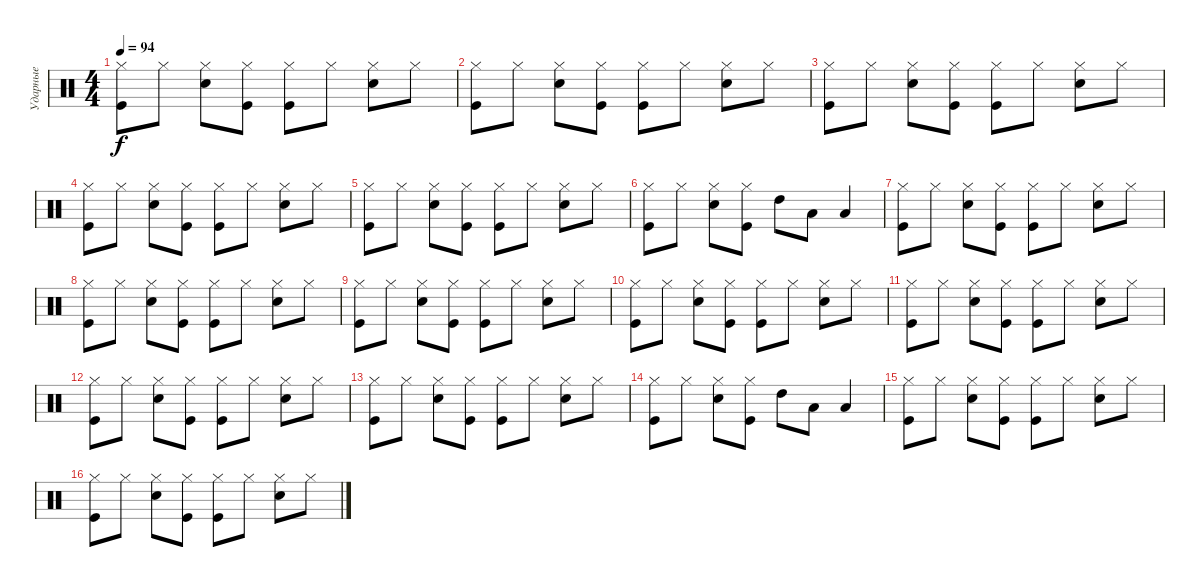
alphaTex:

\track ("Ударные" "Ударные") {instrument percussion}
\staff {score}
\articulation defaults
\ts (4 4)
\tempo 94
\clef neutral
\ks c
("Hi-Hat (closed)" "Kick (hit)").8{dy f} "Hi-Hat (closed)".8 ("Hi-Hat (closed)" "Snare (hit) 2").8 ("Kick (hit)" "Hi-Hat (closed)").8 ("Hi-Hat (closed)" "Kick (hit)").8 "Hi-Hat (closed)".8 ("Hi-Hat (closed)" "Snare (hit) 2").8 "Hi-Hat (closed)".8 |
("Hi-Hat (closed)" "Kick (hit)").8 "Hi-Hat (closed)".8 ("Hi-Hat (closed)" "Snare (hit) 2").8 ("Kick (hit)" "Hi-Hat (closed)").8 ("Hi-Hat (closed)" "Kick (hit)").8 "Hi-Hat (closed)".8 ("Hi-Hat (closed)" "Snare (hit) 2").8 "Hi-Hat (closed)".8 |
("Hi-Hat (closed)" "Kick (hit)").8 "Hi-Hat (closed)".8 ("Hi-Hat (closed)" "Snare (hit) 2").8 ("Kick (hit)" "Hi-Hat (closed)").8 ("Hi-Hat (closed)" "Kick (hit)").8 "Hi-Hat (closed)".8 ("Hi-Hat (closed)" "Snare (hit) 2").8 "Hi-Hat (closed)".8 |
("Hi-Hat (closed)" "Kick (hit)").8 "Hi-Hat (closed)".8 ("Hi-Hat (closed)" "Snare (hit) 2").8 ("Kick (hit)" "Hi-Hat (closed)").8 ("Hi-Hat (closed)" "Kick (hit)").8 "Hi-Hat (closed)".8 ("Hi-Hat (closed)" "Snare (hit) 2").8 "Hi-Hat (closed)".8 |
("Hi-Hat (closed)" "Kick (hit)").8 "Hi-Hat (closed)".8 ("Hi-Hat (closed)" "Snare (hit) 2").8 ("Kick (hit)" "Hi-Hat (closed)").8 ("Hi-Hat (closed)" "Kick (hit)").8 "Hi-Hat (closed)".8 ("Hi-Hat (closed)" "Snare (hit) 2").8 "Hi-Hat (closed)".8 |
("Hi-Hat (closed)" "Kick (hit)").8 "Hi-Hat (closed)".8 ("Hi-Hat (closed)" "Snare (hit) 2").8 ("Kick (hit)" "Hi-Hat (closed)").8 "High Tom (hit)".8 "Low Tom (hit)".8 "Low Floor Tom (hit)".4 |
("Hi-Hat (closed)" "Kick (hit)").8 "Hi-Hat (closed)".8 ("Hi-Hat (closed)" "Snare (hit) 2").8 ("Kick (hit)" "Hi-Hat (closed)").8 ("Hi-Hat (closed)" "Kick (hit)").8 "Hi-Hat (closed)".8 ("Hi-Hat (closed)" "Snare (hit) 2").8 "Hi-Hat (closed)".8 |
("Hi-Hat (closed)" "Kick (hit)").8 "Hi-Hat (closed)".8 ("Hi-Hat (closed)" "Snare (hit) 2").8 ("Kick (hit)" "Hi-Hat (closed)").8 ("Hi-Hat (closed)" "Kick (hit)").8 "Hi-Hat (closed)".8 ("Hi-Hat (closed)" "Snare (hit) 2").8 "Hi-Hat (closed)".8 |
("Hi-Hat (closed)" "Kick (hit)").8 "Hi-Hat (closed)".8 ("Hi-Hat (closed)" "Snare (hit) 2").8 ("Kick (hit)" "Hi-Hat (closed)").8 ("Hi-Hat (closed)" "Kick (hit)").8 "Hi-Hat (closed)".8 ("Hi-Hat (closed)" "Snare (hit) 2").8 "Hi-Hat (closed)".8 |
("Hi-Hat (closed)" "Kick (hit)").8 "Hi-Hat (closed)".8 ("Hi-Hat (closed)" "Snare (hit) 2").8 ("Kick (hit)" "Hi-Hat (closed)").8 ("Hi-Hat (closed)" "Kick (hit)").8 "Hi-Hat (closed)".8 ("Hi-Hat (closed)" "Snare (hit) 2").8 "Hi-Hat (closed)".8 |
("Hi-Hat (closed)" "Kick (hit)").8 "Hi-Hat (closed)".8 ("Hi-Hat (closed)" "Snare (hit) 2").8 ("Kick (hit)" "Hi-Hat (closed)").8 ("Hi-Hat (closed)" "Kick (hit)").8 "Hi-Hat (closed)".8 ("Hi-Hat (closed)" "Snare (hit) 2").8 "Hi-Hat (closed)".8 |
("Hi-Hat (closed)" "Kick (hit)").8 "Hi-Hat (closed)".8 ("Hi-Hat (closed)" "Snare (hit) 2").8 ("Kick (hit)" "Hi-Hat (closed)").8 ("Hi-Hat (closed)" "Kick (hit)").8 "Hi-Hat (closed)".8 ("Hi-Hat (closed)" "Snare (hit) 2").8 "Hi-Hat (closed)".8 |
("Hi-Hat (closed)" "Kick (hit)").8 "Hi-Hat (closed)".8 ("Hi-Hat (closed)" "Snare (hit) 2").8 ("Kick (hit)" "Hi-Hat (closed)").8 ("Hi-Hat (closed)" "Kick (hit)").8 "Hi-Hat (closed)".8 ("Hi-Hat (closed)" "Snare (hit) 2").8 "Hi-Hat (closed)".8 |
("Hi-Hat (closed)" "Kick (hit)").8 "Hi-Hat (closed)".8 ("Hi-Hat (closed)" "Snare (hit) 2").8 ("Kick (hit)" "Hi-Hat (closed)").8 "High Tom (hit)".8 "Low Tom (hit)".8 "Low Floor Tom (hit)".4 |
("Hi-Hat (closed)" "Kick (hit)").8 "Hi-Hat (closed)".8 ("Hi-Hat (closed)" "Snare (hit) 2").8 ("Kick (hit)" "Hi-Hat (closed)").8 ("Hi-Hat (closed)" "Kick (hit)").8 "Hi-Hat (closed)".8 ("Hi-Hat (closed)" "Snare (hit) 2").8 "Hi-Hat (closed)".8 |
("Hi-Hat (closed)" "Kick (hit)").8 "Hi-Hat (closed)".8 ("Hi-Hat (closed)" "Snare (hit) 2").8 ("Kick (hit)" "Hi-Hat (closed)").8 ("Hi-Hat (closed)" "Kick (hit)").8 "Hi-Hat (closed)".8 ("Hi-Hat (closed)" "Snare (hit) 2").8 "Hi-Hat (closed)".8
